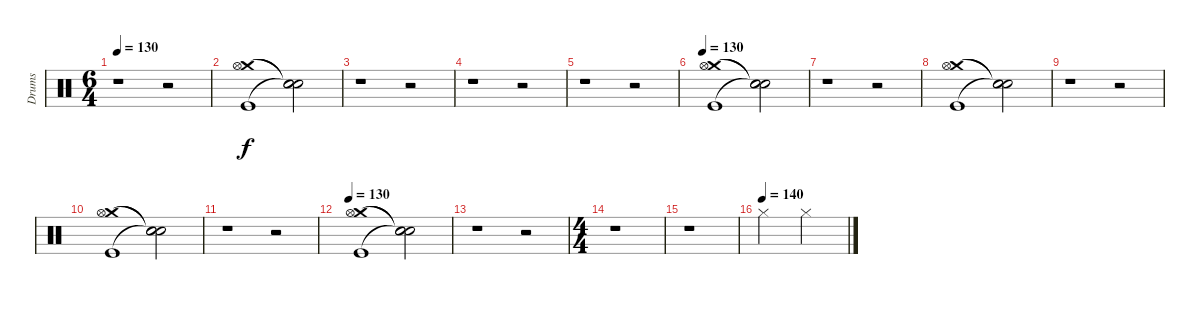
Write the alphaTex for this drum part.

\track ("Drums" "Drums") {instrument percussion}
\staff {score}
\articulation defaults
\ts (6 4)
\tempo 130
\clef neutral
\ks c
r.1{dy f} r.2 |
("Crash medium (hit)" "Hi-Hat (open)" "Kick (hit)").1 ("Snare (hit)"{t} "Snare (hit)"{t} "Snare (hit)"{t}).2 |
r.1 r.2 |
r.1 r.2 |
r.1 r.2 |
\tempo 130
("Crash medium (hit)" "Hi-Hat (open)" "Kick (hit)").1 ("Snare (hit)"{t} "Snare (hit)"{t} "Snare (hit)"{t}).2 |
r.1 r.2 |
("Crash medium (hit)" "Hi-Hat (open)" "Kick (hit)").1 ("Snare (hit)"{t} "Snare (hit)"{t} "Snare (hit)"{t}).2 |
r.1 r.2 |
("Crash medium (hit)" "Hi-Hat (open)" "Kick (hit)").1 ("Snare (hit)"{t} "Snare (hit)"{t} "Snare (hit)"{t}).2 |
r.1 r.2 |
\tempo 130
("Crash medium (hit)" "Hi-Hat (open)" "Kick (hit)").1 ("Snare (hit)"{t} "Snare (hit)"{t} "Snare (hit)"{t}).2 |
r.1 r.2 |
\ts (4 4)
r.1 |
r.1 |
\tempo (140)
"Hi-Hat (closed)".2 "Hi-Hat (closed)".2
